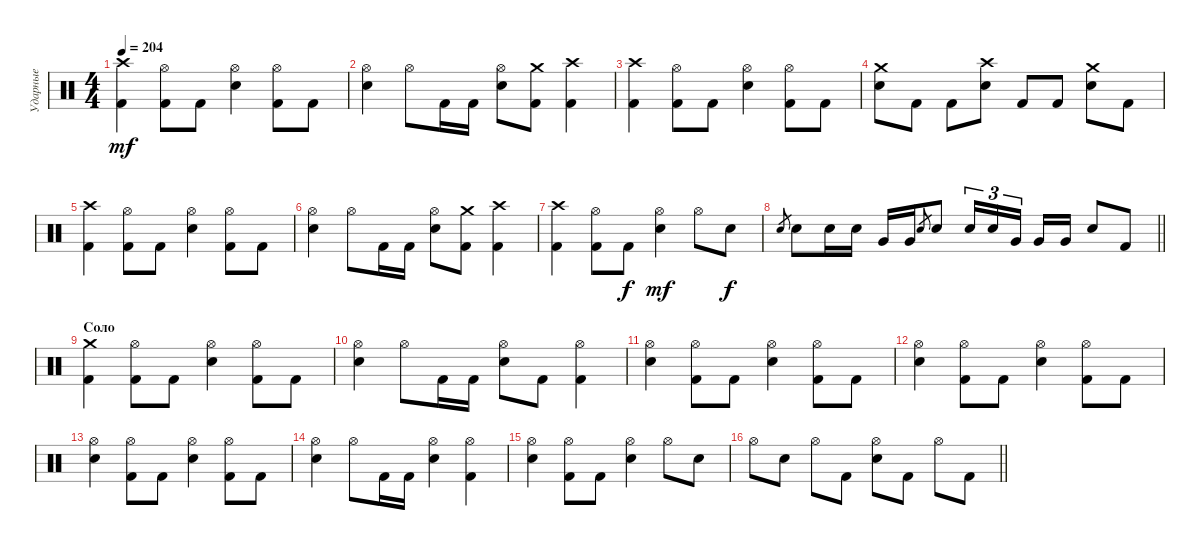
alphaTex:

\track ("Ударные" "Ударные") {instrument percussion}
\staff {score}
\articulation defaults
\ts (4 4)
\tempo 204
\clef neutral
\ks c
("Crash high (hit)" "Kick (hit) 2").4{dy mf} ("Hi-Hat (open)" "Kick (hit) 2").8 "Kick (hit) 2".8 ("Hi-Hat (open)" "Snare (hit) 2").4 ("Hi-Hat (open)" "Kick (hit) 2").8 "Kick (hit) 2".8 |
("Hi-Hat (open)" "Snare (hit) 2").4 "Hi-Hat (open)".8 "Kick (hit) 2".16 "Kick (hit) 2".16 ("Hi-Hat (open)" "Snare (hit) 2").8 ("Crash medium (hit)" "Kick (hit) 2").8 ("Crash high (hit)" "Kick (hit) 2").4 |
("Crash high (hit)" "Kick (hit) 2").4 ("Hi-Hat (open)" "Kick (hit) 2").8 "Kick (hit) 2".8 ("Hi-Hat (open)" "Snare (hit) 2").4 ("Hi-Hat (open)" "Kick (hit) 2").8 "Kick (hit) 2".8 |
("Crash medium (hit)" "Snare (hit) 2").8 "Kick (hit) 2".8 "Kick (hit) 2".8 ("Crash high (hit)" "Snare (hit) 2").8 "Kick (hit) 2".8 "Kick (hit) 2".8 ("Crash medium (hit)" "Snare (hit) 2").8 "Kick (hit) 2".8 |
("Crash high (hit)" "Kick (hit) 2").4 ("Hi-Hat (open)" "Kick (hit) 2").8 "Kick (hit) 2".8 ("Hi-Hat (open)" "Snare (hit) 2").4 ("Hi-Hat (open)" "Kick (hit) 2").8 "Kick (hit) 2".8 |
("Hi-Hat (open)" "Snare (hit) 2").4 "Hi-Hat (open)".8 "Kick (hit) 2".16 "Kick (hit) 2".16 ("Hi-Hat (open)" "Snare (hit) 2").8 ("Crash medium (hit)" "Kick (hit) 2").8 ("Crash high (hit)" "Kick (hit) 2").4 |
("Crash high (hit)" "Kick (hit) 2").4 ("Hi-Hat (open)" "Kick (hit) 2").8 "Kick (hit) 2".8{dy f} ("Hi-Hat (open)" "Snare (hit) 2").4{dy mf} "Hi-Hat (open)".8 "Snare (hit) 2".8{dy f} |
\barLineRight lightlight "Snare (hit) 2".8{gr} "Snare (hit) 2".8 "Snare (hit) 2".16 "Snare (hit) 2".16 "Very Low Tom (hit)".16 "Very Low Tom (hit)".16 "Snare (hit) 2".8{gr} "Snare (hit) 2".8 "Snare (hit) 2".16{tu (3 2)} "Snare (hit) 2".16{tu (3 2)} "Very Low Tom (hit)".16{tu (3 2) beam splitsecondary} "Very Low Tom (hit)".16 "Very Low Tom (hit)".16 "Snare (hit) 2".8 "Kick (hit) 2".8
|
\section ("" "Соло")
("Crash medium (hit)" "Kick (hit) 2").4 ("Hi-Hat (open)" "Kick (hit) 2").8 "Kick (hit) 2".8 ("Hi-Hat (open)" "Snare (hit) 2").4 ("Hi-Hat (open)" "Kick (hit) 2").8 "Kick (hit) 2".8 |
("Hi-Hat (open)" "Snare (hit) 2").4 "Hi-Hat (open)".8 "Kick (hit) 2".16 "Kick (hit) 2".16 ("Hi-Hat (open)" "Snare (hit) 2").8 "Kick (hit) 2".8 ("Hi-Hat (open)" "Kick (hit) 2").4 |
("Hi-Hat (open)" "Snare (hit) 2").4 ("Hi-Hat (open)" "Kick (hit) 2").8 "Kick (hit) 2".8 ("Hi-Hat (open)" "Snare (hit) 2").4 ("Hi-Hat (open)" "Kick (hit) 2").8 "Kick (hit) 2".8 |
("Hi-Hat (open)" "Snare (hit) 2").4 ("Hi-Hat (open)" "Kick (hit) 2").8 "Kick (hit) 2".8 ("Hi-Hat (open)" "Snare (hit) 2").4 ("Hi-Hat (open)" "Kick (hit) 2").8 "Kick (hit) 2".8 |
("Hi-Hat (open)" "Snare (hit) 2").4 ("Hi-Hat (open)" "Kick (hit) 2").8 "Kick (hit) 2".8 ("Hi-Hat (open)" "Snare (hit) 2").4 ("Hi-Hat (open)" "Kick (hit) 2").8 "Kick (hit) 2".8 |
("Hi-Hat (open)" "Snare (hit) 2").4 "Hi-Hat (open)".8 "Kick (hit) 2".16 "Kick (hit) 2".16 ("Hi-Hat (open)" "Snare (hit) 2").4 ("Hi-Hat (open)" "Kick (hit) 2").4 |
("Hi-Hat (open)" "Snare (hit) 2").4 ("Hi-Hat (open)" "Kick (hit) 2").8 "Kick (hit) 2".8 ("Hi-Hat (open)" "Snare (hit) 2").4 "Hi-Hat (open)".8 "Snare (hit) 2".8 |
\barLineRight lightlight "Hi-Hat (open)".8 "Snare (hit) 2".8 "Hi-Hat (open)".8 "Kick (hit) 2".8
("Hi-Hat (open)" "Snare (hit) 2").8 "Kick (hit) 2".8 "Hi-Hat (open)".8 "Kick (hit) 2".8
